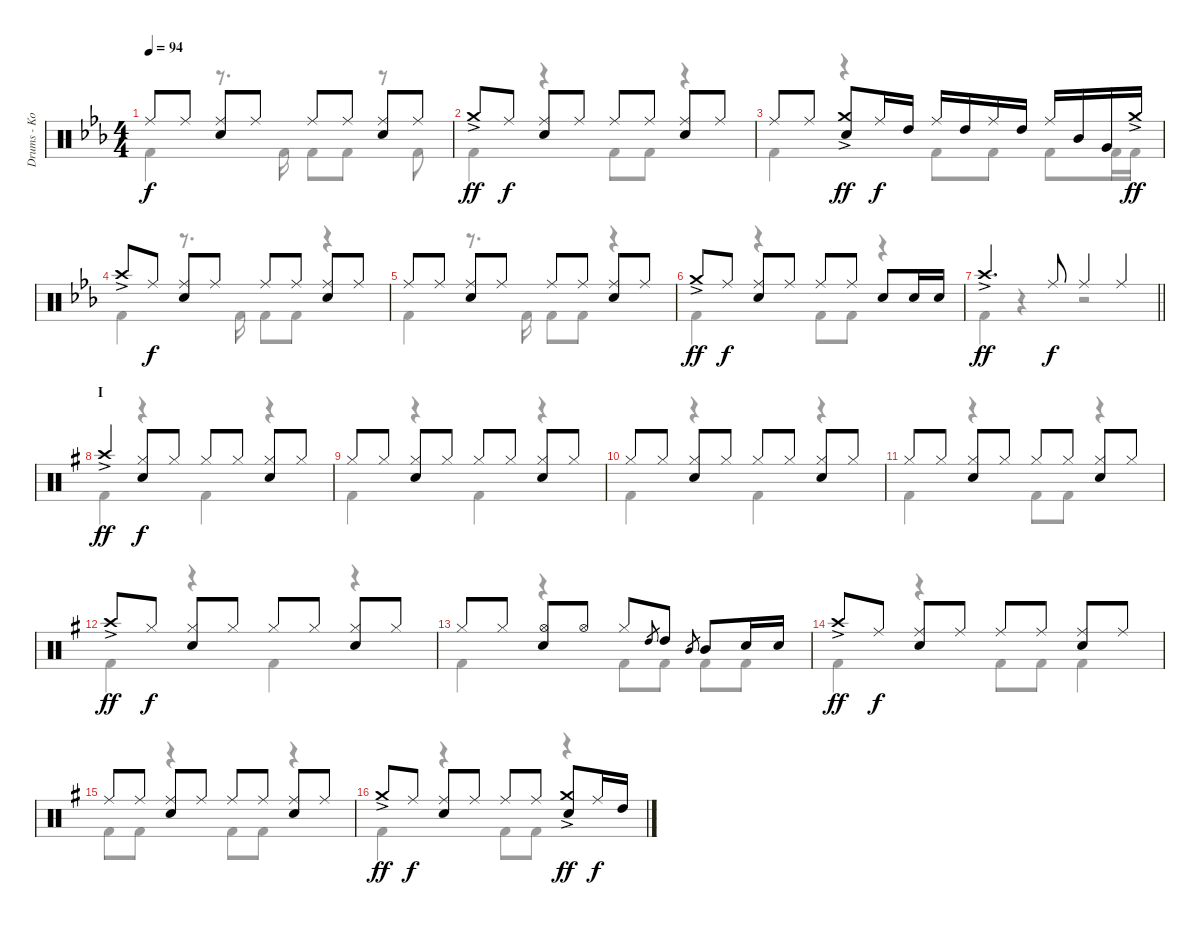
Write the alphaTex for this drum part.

\track ("Drums - Koji Hasegawa" "Drums - Ko") {instrument percussion}
\staff {score}
\articulation defaults
\voice
\ts (4 4)
\tempo 94
\clef neutral
\ks eb "Ride (middle)".8{dy f} "Ride (middle)".8
("Ride (middle)" "Electric Snare (hit)").8 "Ride (middle)".8 "Ride (middle)".8 "Ride (middle)".8 ("Ride (middle)" "Electric Snare (hit)").8 "Ride (middle)".8 |
"Crash medium (hit)"{ac}.8{dy ff} "Ride (middle)".8{dy f} ("Ride (middle)" "Electric Snare (hit)").8 "Ride (middle)".8 "Ride (middle)".8 "Ride (middle)".8 ("Ride (middle)" "Electric Snare (hit)").8 "Ride (middle)".8 |
"Ride (middle)".8 "Ride (middle)".8 ("Crash medium (hit)"{ac} "Electric Snare (hit)").8{dy ff} "Ride (middle)".16{dy f} "High Tom (hit)".16 "Ride (middle)".16 "High Tom (hit)".16 "Ride (middle)".16 "High Tom (hit)".16 "Ride (middle)".16 "Mid Tom (hit)".16 "Very Low Tom (hit)".16 "Crash medium (hit)"{ac}.16{dy ff} |
"Crash high (hit)"{ac}.8 "Ride (middle)".8{dy f} ("Ride (middle)" "Electric Snare (hit)").8 "Ride (middle)".8 "Ride (middle)".8 "Ride (middle)".8 ("Ride (middle)" "Electric Snare (hit)").8 "Ride (middle)".8 |
"Ride (middle)".8 "Ride (middle)".8 ("Ride (middle)" "Electric Snare (hit)").8 "Ride (middle)".8 "Ride (middle)".8 "Ride (middle)".8 ("Ride (middle)" "Electric Snare (hit)").8 "Ride (middle)".8 |
"Crash medium (hit)"{ac}.8{dy ff} "Ride (middle)".8{dy f} ("Ride (middle)" "Electric Snare (hit)").8 "Ride (middle)".8 "Ride (middle)".8 "Ride (middle)".8 "Electric Snare (hit)".8 "Electric Snare (hit)".16 "Electric Snare (hit)".16 |
\barLineRight lightlight "Crash high (hit)"{ac}.4{d dy ff} "Ride (middle)".8{dy f} "Ride (middle)".4 "Ride (middle)".4
|
\section ("" "I")
\ks g "Crash high (hit)"{ac}.4{dy ff}
("Hi-Hat (closed)" "Electric Snare (hit)").8{dy f} "Hi-Hat (closed)".8 "Hi-Hat (closed)".8 "Hi-Hat (closed)".8 ("Hi-Hat (closed)" "Electric Snare (hit)").8 "Hi-Hat (closed)".8 |
"Hi-Hat (closed)".8 "Hi-Hat (closed)".8 ("Hi-Hat (closed)" "Electric Snare (hit)").8 "Hi-Hat (closed)".8 "Hi-Hat (closed)".8 "Hi-Hat (closed)".8 ("Hi-Hat (closed)" "Electric Snare (hit)").8 "Hi-Hat (closed)".8 |
"Hi-Hat (closed)".8 "Hi-Hat (closed)".8 ("Hi-Hat (closed)" "Electric Snare (hit)").8 "Hi-Hat (closed)".8 "Hi-Hat (closed)".8 "Hi-Hat (closed)".8 ("Hi-Hat (closed)" "Electric Snare (hit)").8 "Hi-Hat (closed)".8 |
"Hi-Hat (closed)".8 "Hi-Hat (closed)".8 ("Hi-Hat (closed)" "Electric Snare (hit)").8 "Hi-Hat (closed)".8 "Hi-Hat (closed)".8 "Hi-Hat (closed)".8 ("Hi-Hat (closed)" "Electric Snare (hit)").8 "Hi-Hat (closed)".8 |
"Crash high (hit)"{ac}.8{dy ff} "Hi-Hat (closed)".8{dy f} ("Hi-Hat (closed)" "Electric Snare (hit)").8 "Hi-Hat (closed)".8 "Hi-Hat (closed)".8 "Hi-Hat (closed)".8 ("Hi-Hat (closed)" "Electric Snare (hit)").8 "Hi-Hat (closed)".8 |
"Hi-Hat (closed)".8 "Hi-Hat (closed)".8 ("Hi-Hat (open)" "Electric Snare (hit)").8 "Hi-Hat (open)".8 "Hi-Hat (closed)".8 "High Tom (hit)".8{gr} "High Tom (hit)".8 "Mid Tom (hit)".8{gr} "Mid Tom (hit)".8 "Electric Snare (hit)".16 "Electric Snare (hit)".16 |
"Crash high (hit)"{ac}.8{dy ff} "Ride (middle)".8{dy f} ("Ride (middle)" "Electric Snare (hit)").8 "Ride (middle)".8 "Ride (middle)".8 "Ride (middle)".8 ("Ride (middle)" "Electric Snare (hit)").8 "Ride (middle)".8 |
"Ride (middle)".8 "Ride (middle)".8 ("Ride (middle)" "Electric Snare (hit)").8 "Ride (middle)".8 "Ride (middle)".8 "Ride (middle)".8 ("Ride (middle)" "Electric Snare (hit)").8 "Ride (middle)".8 |
"Crash medium (hit)"{ac}.8{dy ff} "Ride (middle)".8{dy f} ("Ride (middle)" "Electric Snare (hit)").8 "Ride (middle)".8 "Ride (middle)".8 "Ride (middle)".8 ("Crash medium (hit)"{ac} "Electric Snare (hit)").8{dy ff} "Ride (middle)".16{dy f} "High Tom (hit)".16
\voice
\clef neutral
\ottava regular
\simile none
\ks eb "Kick (hit) 2".4{dy f}
r.8{d} "Kick (hit) 2".16 "Kick (hit) 2".8 "Kick (hit) 2".8 r.8 "Kick (hit) 2".8 |
"Kick (hit) 2".4 r.4 "Kick (hit) 2".8 "Kick (hit) 2".8 r.4 |
"Kick (hit) 2".4 r.4 "Kick (hit) 2".8 "Kick (hit) 2".8 "Kick (hit) 2".8 "Kick (hit) 2".16 "Kick (hit) 2".16 |
"Kick (hit) 2".4 r.8{d} "Kick (hit) 2".16 "Kick (hit) 2".8 "Kick (hit) 2".8 r.4 |
"Kick (hit) 2".4 r.8{d} "Kick (hit) 2".16 "Kick (hit) 2".8 "Kick (hit) 2".8 r.4 |
"Kick (hit) 2".4 r.4 "Kick (hit) 2".8 "Kick (hit) 2".8 r.4 |
\barLineRight lightlight "Kick (hit) 2".4
r.4 r.2 |
\ks g "Kick (hit) 2".4
r.4 "Kick (hit) 2".4 r.4 |
"Kick (hit) 2".4 r.4 "Kick (hit) 2".4 r.4 |
"Kick (hit) 2".4 r.4 "Kick (hit) 2".4 r.4 |
"Kick (hit) 2".4 r.4 "Kick (hit) 2".8 "Kick (hit) 2".8 r.4 |
"Kick (hit) 2".4 r.4 "Kick (hit) 2".4 r.4 |
"Kick (hit) 2".4 r.4 "Kick (hit) 2".8 "Kick (hit) 2".8 "Kick (hit) 2".8 "Kick (hit) 2".8 |
"Kick (hit) 2".4 r.4 "Kick (hit) 2".8 "Kick (hit) 2".8 "Kick (hit) 2".4 |
"Kick (hit) 2".8 "Kick (hit) 2".8 r.4 "Kick (hit) 2".8 "Kick (hit) 2".8 r.4 |
"Kick (hit) 2".4 r.4 "Kick (hit) 2".8 "Kick (hit) 2".8 r.4
